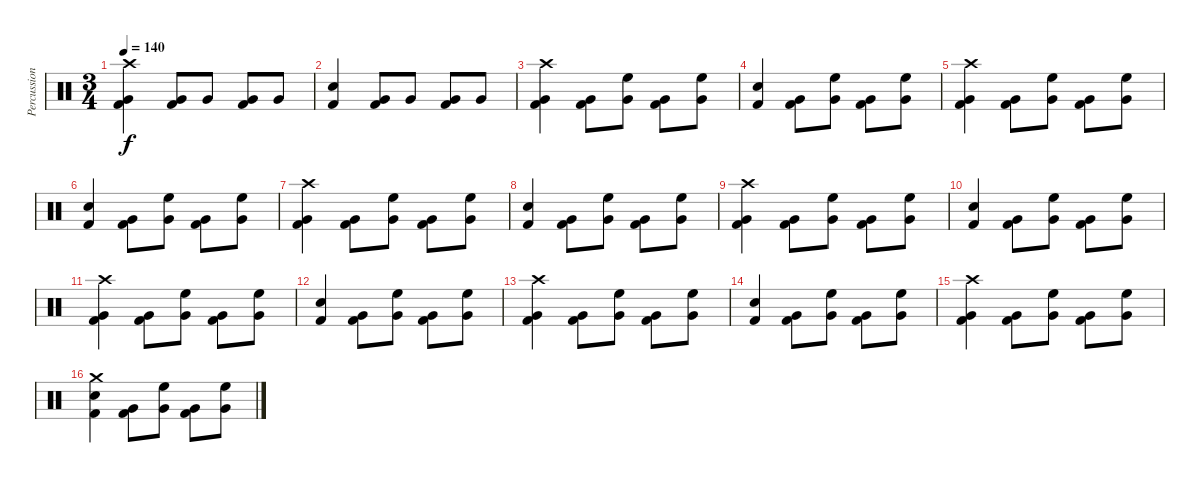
\track ("Percussions" "Percussion") {instrument percussion}
\staff {score}
\articulation defaults
\ts (3 4)
\tempo 140
\clef neutral
\ks c
("Crash high (hit)" "Very Low Tom (hit)" "Kick (hit) 2").4{dy f} ("Very Low Tom (hit)" "Kick (hit) 2").8 "Very Low Tom (hit)".8 ("Very Low Tom (hit)" "Kick (hit) 2").8 "Very Low Tom (hit)".8 |
("Electric Snare (hit)" "Kick (hit) 2").4 ("Very Low Tom (hit)" "Kick (hit) 2").8 "Very Low Tom (hit)".8 ("Very Low Tom (hit)" "Kick (hit) 2").8 "Very Low Tom (hit)".8 |
("Crash high (hit)" "Very Low Tom (hit)" "Kick (hit) 2").4 ("Very Low Tom (hit)" "Kick (hit) 2").8 ("High Floor Tom (hit)" "Very Low Tom (hit)").8 ("Very Low Tom (hit)" "Kick (hit) 2").8 ("High Floor Tom (hit)" "Very Low Tom (hit)").8 |
("Electric Snare (hit)" "Kick (hit) 2").4 ("Very Low Tom (hit)" "Kick (hit) 2").8 ("High Floor Tom (hit)" "Very Low Tom (hit)").8 ("Very Low Tom (hit)" "Kick (hit) 2").8 ("High Floor Tom (hit)" "Very Low Tom (hit)").8 |
("Crash high (hit)" "Very Low Tom (hit)" "Kick (hit) 2").4 ("Very Low Tom (hit)" "Kick (hit) 2").8 ("High Floor Tom (hit)" "Very Low Tom (hit)").8 ("Very Low Tom (hit)" "Kick (hit) 2").8 ("High Floor Tom (hit)" "Very Low Tom (hit)").8 |
("Electric Snare (hit)" "Kick (hit) 2").4 ("Very Low Tom (hit)" "Kick (hit) 2").8 ("High Floor Tom (hit)" "Very Low Tom (hit)").8 ("Very Low Tom (hit)" "Kick (hit) 2").8 ("High Floor Tom (hit)" "Very Low Tom (hit)").8 |
("Crash high (hit)" "Very Low Tom (hit)" "Kick (hit) 2").4 ("Very Low Tom (hit)" "Kick (hit) 2").8 ("High Floor Tom (hit)" "Very Low Tom (hit)").8 ("Very Low Tom (hit)" "Kick (hit) 2").8 ("High Floor Tom (hit)" "Very Low Tom (hit)").8 |
("Electric Snare (hit)" "Kick (hit) 2").4 ("Very Low Tom (hit)" "Kick (hit) 2").8 ("High Floor Tom (hit)" "Very Low Tom (hit)").8 ("Very Low Tom (hit)" "Kick (hit) 2").8 ("High Floor Tom (hit)" "Very Low Tom (hit)").8 |
("Crash high (hit)" "Very Low Tom (hit)" "Kick (hit) 2").4 ("Very Low Tom (hit)" "Kick (hit) 2").8 ("High Floor Tom (hit)" "Very Low Tom (hit)").8 ("Very Low Tom (hit)" "Kick (hit) 2").8 ("High Floor Tom (hit)" "Very Low Tom (hit)").8 |
("Electric Snare (hit)" "Kick (hit) 2").4 ("Very Low Tom (hit)" "Kick (hit) 2").8 ("High Floor Tom (hit)" "Very Low Tom (hit)").8 ("Very Low Tom (hit)" "Kick (hit) 2").8 ("High Floor Tom (hit)" "Very Low Tom (hit)").8 |
("Crash high (hit)" "Very Low Tom (hit)" "Kick (hit) 2").4 ("Very Low Tom (hit)" "Kick (hit) 2").8 ("High Floor Tom (hit)" "Very Low Tom (hit)").8 ("Very Low Tom (hit)" "Kick (hit) 2").8 ("High Floor Tom (hit)" "Very Low Tom (hit)").8 |
("Electric Snare (hit)" "Kick (hit) 2").4 ("Very Low Tom (hit)" "Kick (hit) 2").8 ("High Floor Tom (hit)" "Very Low Tom (hit)").8 ("Very Low Tom (hit)" "Kick (hit) 2").8 ("High Floor Tom (hit)" "Very Low Tom (hit)").8 |
("Crash high (hit)" "Very Low Tom (hit)" "Kick (hit) 2").4 ("Very Low Tom (hit)" "Kick (hit) 2").8 ("High Floor Tom (hit)" "Very Low Tom (hit)").8 ("Very Low Tom (hit)" "Kick (hit) 2").8 ("High Floor Tom (hit)" "Very Low Tom (hit)").8 |
("Electric Snare (hit)" "Kick (hit) 2").4 ("Very Low Tom (hit)" "Kick (hit) 2").8 ("High Floor Tom (hit)" "Very Low Tom (hit)").8 ("Very Low Tom (hit)" "Kick (hit) 2").8 ("High Floor Tom (hit)" "Very Low Tom (hit)").8 |
("Crash high (hit)" "Very Low Tom (hit)" "Kick (hit) 2").4 ("Very Low Tom (hit)" "Kick (hit) 2").8 ("High Floor Tom (hit)" "Very Low Tom (hit)").8 ("Very Low Tom (hit)" "Kick (hit) 2").8 ("High Floor Tom (hit)" "Very Low Tom (hit)").8 |
("Crash medium (hit)" "Electric Snare (hit)" "Kick (hit) 2").4 ("Very Low Tom (hit)" "Kick (hit) 2").8 ("High Floor Tom (hit)" "Very Low Tom (hit)").8 ("Very Low Tom (hit)" "Kick (hit) 2").8 ("High Floor Tom (hit)" "Very Low Tom (hit)").8
